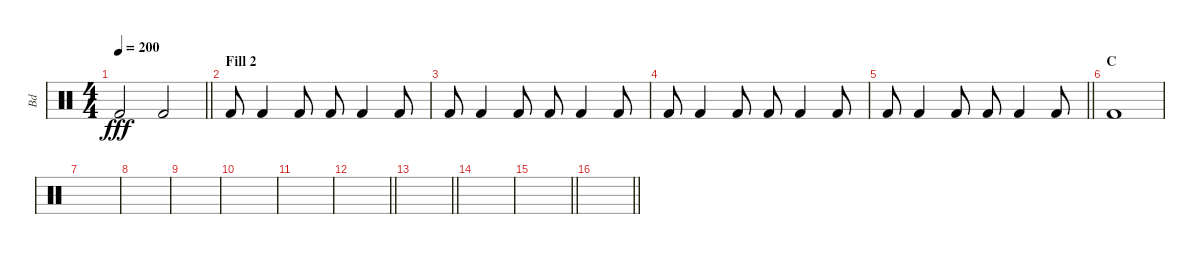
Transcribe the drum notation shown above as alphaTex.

\track ("Bd" "Bd") {instrument percussion}
\staff {score}
\articulation defaults
\ts (4 4)
\tempo 200
\clef neutral
\barLineRight lightlight
\ks c "Kick (hit) 2".2{dy fff} "Kick (hit) 2".2
|
\section ("" "Fill 2")
"Kick (hit) 2".8 "Kick (hit) 2".4 "Kick (hit) 2".8 "Kick (hit) 2".8 "Kick (hit) 2".4 "Kick (hit) 2".8 |
"Kick (hit) 2".8 "Kick (hit) 2".4 "Kick (hit) 2".8 "Kick (hit) 2".8 "Kick (hit) 2".4 "Kick (hit) 2".8 |
"Kick (hit) 2".8 "Kick (hit) 2".4 "Kick (hit) 2".8 "Kick (hit) 2".8 "Kick (hit) 2".4 "Kick (hit) 2".8 |
\barLineRight lightlight "Kick (hit) 2".8 "Kick (hit) 2".4 "Kick (hit) 2".8 "Kick (hit) 2".8 "Kick (hit) 2".4 "Kick (hit) 2".8
|
\section ("" "C")
"Kick (hit) 2".1 |
|
|
|
|
|
\barLineRight lightlight
|
\barLineRight lightlight
|
\section ("" " ")
|
\barLineRight lightlight
|
\barLineRight lightlight
